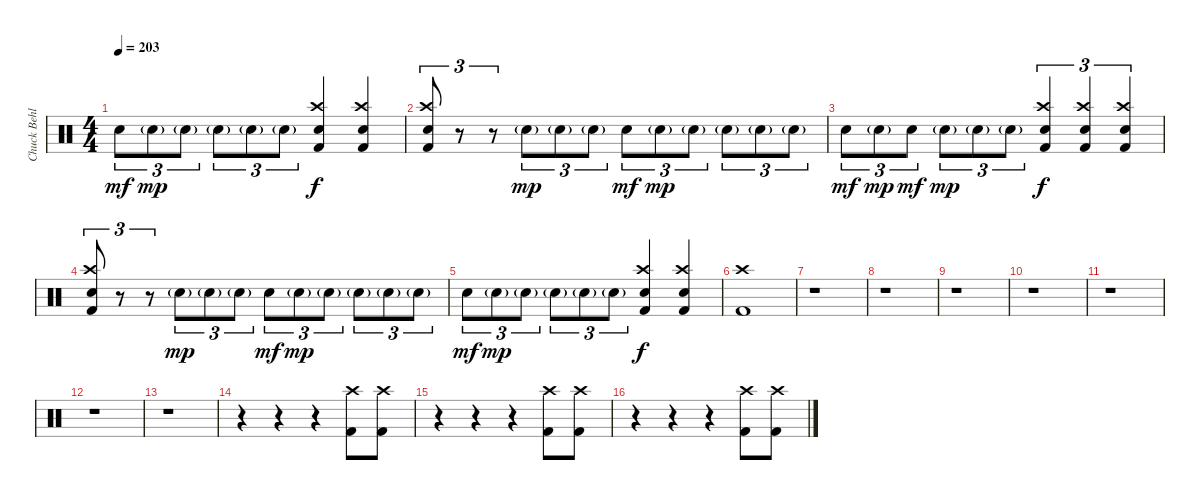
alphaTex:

\track ("Chuck Behler" "Chuck Behl") {instrument percussion}
\staff {score}
\articulation defaults
\ts (4 4)
\tempo 203
\clef neutral
\ks c "Snare (hit) 2".8{tu (3 2) dy mf} "Snare (hit) 2"{g}.8{tu (3 2) dy mp} "Snare (hit) 2"{g}.8{tu (3 2)} "Snare (hit) 2"{g}.8{tu (3 2)} "Snare (hit) 2"{g}.8{tu (3 2)} "Snare (hit) 2"{g}.8{tu (3 2)}
("Crash high (hit)" "Snare (hit) 2" "Kick (hit) 2").4{dy f} ("Crash high (hit)" "Snare (hit) 2" "Kick (hit) 2").4 |
("Crash high (hit)" "Snare (hit) 2" "Kick (hit) 2").8{tu (3 2)} r.8{tu (3 2)} r.8{tu (3 2)} "Snare (hit) 2"{g}.8{tu (3 2) dy mp} "Snare (hit) 2"{g}.8{tu (3 2)} "Snare (hit) 2"{g}.8{tu (3 2)} "Snare (hit) 2".8{tu (3 2) dy mf} "Snare (hit) 2"{g}.8{tu (3 2) dy mp} "Snare (hit) 2"{g}.8{tu (3 2)} "Snare (hit) 2"{g}.8{tu (3 2)} "Snare (hit) 2"{g}.8{tu (3 2)} "Snare (hit) 2"{g}.8{tu (3 2)} |
"Snare (hit) 2".8{tu (3 2) dy mf} "Snare (hit) 2"{g}.8{tu (3 2) dy mp} "Snare (hit) 2".8{tu (3 2) dy mf} "Snare (hit) 2"{g}.8{tu (3 2) dy mp} "Snare (hit) 2"{g}.8{tu (3 2)} "Snare (hit) 2"{g}.8{tu (3 2)} ("Crash high (hit)" "Snare (hit) 2" "Kick (hit) 2").4{tu (3 2) dy f} ("Crash high (hit)" "Snare (hit) 2" "Kick (hit) 2").4{tu (3 2)} ("Crash high (hit)" "Snare (hit) 2" "Kick (hit) 2").4{tu (3 2)} |
("Crash high (hit)" "Snare (hit) 2" "Kick (hit) 2").8{tu (3 2)} r.8{tu (3 2)} r.8{tu (3 2)} "Snare (hit) 2"{g}.8{tu (3 2) dy mp} "Snare (hit) 2"{g}.8{tu (3 2)} "Snare (hit) 2"{g}.8{tu (3 2)} "Snare (hit) 2".8{tu (3 2) dy mf} "Snare (hit) 2"{g}.8{tu (3 2) dy mp} "Snare (hit) 2"{g}.8{tu (3 2)} "Snare (hit) 2"{g}.8{tu (3 2)} "Snare (hit) 2"{g}.8{tu (3 2)} "Snare (hit) 2"{g}.8{tu (3 2)} |
"Snare (hit) 2".8{tu (3 2) dy mf} "Snare (hit) 2"{g}.8{tu (3 2) dy mp} "Snare (hit) 2"{g}.8{tu (3 2)} "Snare (hit) 2"{g}.8{tu (3 2)} "Snare (hit) 2"{g}.8{tu (3 2)} "Snare (hit) 2"{g}.8{tu (3 2)} ("Crash high (hit)" "Snare (hit) 2" "Kick (hit) 2").4{dy f} ("Crash high (hit)" "Snare (hit) 2" "Kick (hit) 2").4 |
("Crash high (hit)" "Kick (hit) 2").1 |
r.1 |
r.1 |
r.1 |
r.1 |
r.1 |
r.1 |
r.1 |
r.4 r.4 r.4 ("Crash high (hit)" "Kick (hit) 2").8 ("Crash high (hit)" "Kick (hit) 2").8 |
r.4 r.4 r.4 ("Crash high (hit)" "Kick (hit) 2").8 ("Crash high (hit)" "Kick (hit) 2").8 |
r.4 r.4 r.4 ("Crash high (hit)" "Kick (hit) 2").8 ("Crash high (hit)" "Kick (hit) 2").8
